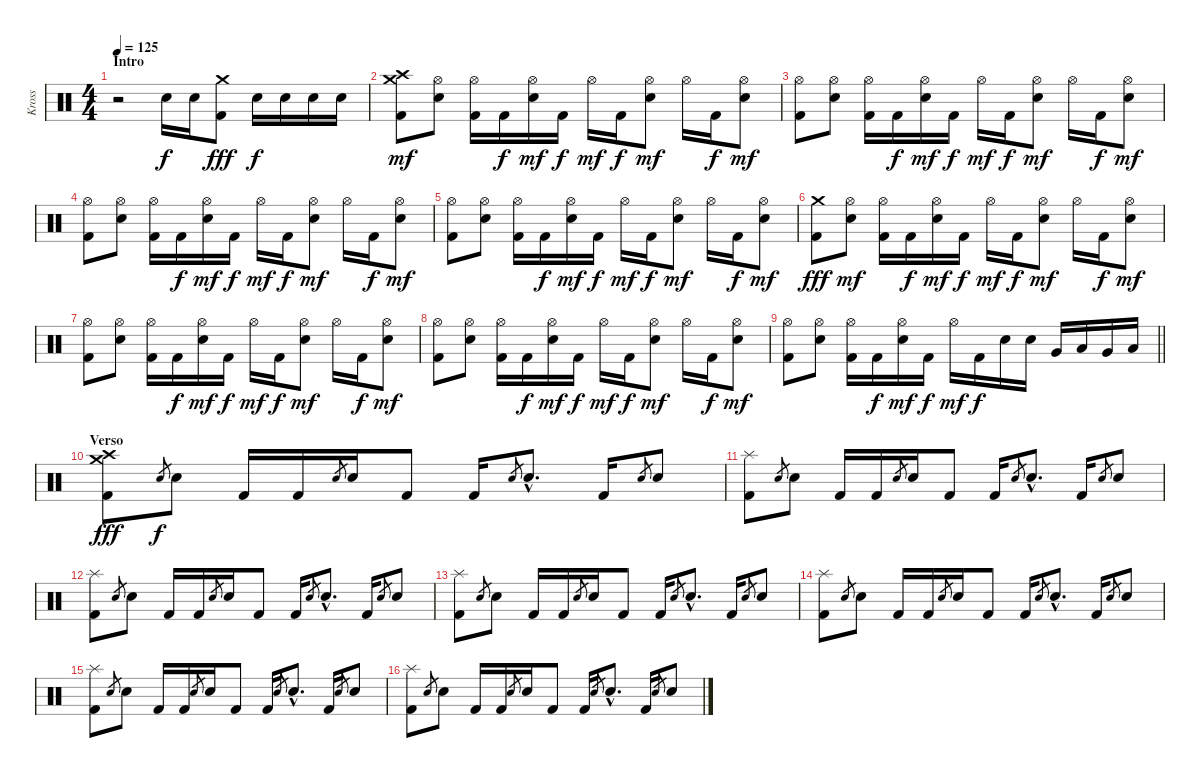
\track ("Kross" "Kross") {instrument percussion}
\staff {score}
\articulation defaults
\ts (4 4)
\section ("" "Intro")
\tempo 125
\clef neutral
\ks c
r.2{dy f} "Snare (hit) 2".16 "Snare (hit) 2".16 ("Crash medium (hit)" "Kick (hit) 2").8{dy fff} "Snare (hit) 2".16{dy f} "Snare (hit) 2".16 "Snare (hit) 2".16 "Snare (hit) 2".16 |
("Crash medium (hit)" "Crash high (hit)" "Kick (hit) 2").8{dy mf} ("Hi-Hat (open)" "Snare (hit) 2").8 ("Hi-Hat (open)" "Kick (hit) 2").16 "Kick (hit) 2".16{dy f} ("Hi-Hat (open)" "Snare (hit) 2").16{dy mf} "Kick (hit) 2".16{dy f} "Hi-Hat (open)".16{dy mf} "Kick (hit) 2".16{dy f} ("Hi-Hat (open)" "Snare (hit) 2").8{dy mf} "Hi-Hat (open)".16 "Kick (hit) 2".16{dy f} ("Hi-Hat (open)" "Snare (hit) 2").8{dy mf} |
("Hi-Hat (open)" "Kick (hit) 2").8 ("Hi-Hat (open)" "Snare (hit) 2").8 ("Hi-Hat (open)" "Kick (hit) 2").16 "Kick (hit) 2".16{dy f} ("Hi-Hat (open)" "Snare (hit) 2").16{dy mf} "Kick (hit) 2".16{dy f} "Hi-Hat (open)".16{dy mf} "Kick (hit) 2".16{dy f} ("Hi-Hat (open)" "Snare (hit) 2").8{dy mf} "Hi-Hat (open)".16 "Kick (hit) 2".16{dy f} ("Hi-Hat (open)" "Snare (hit) 2").8{dy mf} |
("Hi-Hat (open)" "Kick (hit) 2").8 ("Hi-Hat (open)" "Snare (hit) 2").8 ("Hi-Hat (open)" "Kick (hit) 2").16 "Kick (hit) 2".16{dy f} ("Hi-Hat (open)" "Snare (hit) 2").16{dy mf} "Kick (hit) 2".16{dy f} "Hi-Hat (open)".16{dy mf} "Kick (hit) 2".16{dy f} ("Hi-Hat (open)" "Snare (hit) 2").8{dy mf} "Hi-Hat (open)".16 "Kick (hit) 2".16{dy f} ("Hi-Hat (open)" "Snare (hit) 2").8{dy mf} |
("Hi-Hat (open)" "Kick (hit) 2").8 ("Hi-Hat (open)" "Snare (hit) 2").8 ("Hi-Hat (open)" "Kick (hit) 2").16 "Kick (hit) 2".16{dy f} ("Hi-Hat (open)" "Snare (hit) 2").16{dy mf} "Kick (hit) 2".16{dy f} "Hi-Hat (open)".16{dy mf} "Kick (hit) 2".16{dy f} ("Hi-Hat (open)" "Snare (hit) 2").8{dy mf} "Hi-Hat (open)".16 "Kick (hit) 2".16{dy f} ("Hi-Hat (open)" "Snare (hit) 2").8{dy mf} |
("Crash medium (hit)" "Kick (hit) 2").8{dy fff} ("Hi-Hat (open)" "Snare (hit) 2").8{dy mf} ("Hi-Hat (open)" "Kick (hit) 2").16 "Kick (hit) 2".16{dy f} ("Hi-Hat (open)" "Snare (hit) 2").16{dy mf} "Kick (hit) 2".16{dy f} "Hi-Hat (open)".16{dy mf} "Kick (hit) 2".16{dy f} ("Hi-Hat (open)" "Snare (hit) 2").8{dy mf} "Hi-Hat (open)".16 "Kick (hit) 2".16{dy f} ("Hi-Hat (open)" "Snare (hit) 2").8{dy mf} |
("Hi-Hat (open)" "Kick (hit) 2").8 ("Hi-Hat (open)" "Snare (hit) 2").8 ("Hi-Hat (open)" "Kick (hit) 2").16 "Kick (hit) 2".16{dy f} ("Hi-Hat (open)" "Snare (hit) 2").16{dy mf} "Kick (hit) 2".16{dy f} "Hi-Hat (open)".16{dy mf} "Kick (hit) 2".16{dy f} ("Hi-Hat (open)" "Snare (hit) 2").8{dy mf} "Hi-Hat (open)".16 "Kick (hit) 2".16{dy f} ("Hi-Hat (open)" "Snare (hit) 2").8{dy mf} |
("Hi-Hat (open)" "Kick (hit) 2").8 ("Hi-Hat (open)" "Snare (hit) 2").8 ("Hi-Hat (open)" "Kick (hit) 2").16 "Kick (hit) 2".16{dy f} ("Hi-Hat (open)" "Snare (hit) 2").16{dy mf} "Kick (hit) 2".16{dy f} "Hi-Hat (open)".16{dy mf} "Kick (hit) 2".16{dy f} ("Hi-Hat (open)" "Snare (hit) 2").8{dy mf} "Hi-Hat (open)".16 "Kick (hit) 2".16{dy f} ("Hi-Hat (open)" "Snare (hit) 2").8{dy mf} |
\barLineRight lightlight
("Hi-Hat (open)" "Kick (hit) 2").8 ("Hi-Hat (open)" "Snare (hit) 2").8 ("Hi-Hat (open)" "Kick (hit) 2").16 "Kick (hit) 2".16{dy f} ("Hi-Hat (open)" "Snare (hit) 2").16{dy mf} "Kick (hit) 2".16{dy f} "Hi-Hat (open)".16{dy mf} "Kick (hit) 2".16{dy f} "Snare (hit) 2".16 "Snare (hit) 2".16 "Very Low Tom (hit)".16 "Low Tom (hit)".16 "Very Low Tom (hit)".16 "Low Tom (hit)".16 |
\section ("" "Verso")
("Crash high (hit)" "Crash medium (hit)" "Kick (hit) 2").8{dy fff} "Snare (hit) 2".8{gr dy f} "Snare (hit) 2".8 "Kick (hit) 2".16 "Kick (hit) 2".16 "Snare (hit) 2".8{gr} "Snare (hit) 2".16 "Kick (hit) 2".8 "Kick (hit) 2".16 "Snare (hit) 2".8{gr} "Snare (hit) 2"{hac}.8{d} "Kick (hit) 2".16 "Snare (hit) 2".8{gr} "Snare (hit) 2".8 |
("Splash (hit)" "Kick (hit) 2").8 "Snare (hit) 2".8{gr} "Snare (hit) 2".8 "Kick (hit) 2".16 "Kick (hit) 2".16 "Snare (hit) 2".8{gr} "Snare (hit) 2".16 "Kick (hit) 2".8 "Kick (hit) 2".16 "Snare (hit) 2".8{gr} "Snare (hit) 2"{hac}.8{d} "Kick (hit) 2".16 "Snare (hit) 2".8{gr} "Snare (hit) 2".8 |
("Splash (hit)" "Kick (hit) 2").8 "Snare (hit) 2".8{gr} "Snare (hit) 2".8 "Kick (hit) 2".16 "Kick (hit) 2".16 "Snare (hit) 2".8{gr} "Snare (hit) 2".16 "Kick (hit) 2".8 "Kick (hit) 2".16 "Snare (hit) 2".8{gr} "Snare (hit) 2"{hac}.8{d} "Kick (hit) 2".16 "Snare (hit) 2".8{gr} "Snare (hit) 2".8 |
("Splash (hit)" "Kick (hit) 2").8 "Snare (hit) 2".8{gr} "Snare (hit) 2".8 "Kick (hit) 2".16 "Kick (hit) 2".16 "Snare (hit) 2".8{gr} "Snare (hit) 2".16 "Kick (hit) 2".8 "Kick (hit) 2".16 "Snare (hit) 2".8{gr} "Snare (hit) 2"{hac}.8{d} "Kick (hit) 2".16 "Snare (hit) 2".8{gr} "Snare (hit) 2".8 |
("Splash (hit)" "Kick (hit) 2").8 "Snare (hit) 2".8{gr} "Snare (hit) 2".8 "Kick (hit) 2".16 "Kick (hit) 2".16 "Snare (hit) 2".8{gr} "Snare (hit) 2".16 "Kick (hit) 2".8 "Kick (hit) 2".16 "Snare (hit) 2".8{gr} "Snare (hit) 2"{hac}.8{d} "Kick (hit) 2".16 "Snare (hit) 2".8{gr} "Snare (hit) 2".8 |
("Splash (hit)" "Kick (hit) 2").8 "Snare (hit) 2".8{gr} "Snare (hit) 2".8 "Kick (hit) 2".16 "Kick (hit) 2".16 "Snare (hit) 2".8{gr} "Snare (hit) 2".16 "Kick (hit) 2".8 "Kick (hit) 2".16 "Snare (hit) 2".8{gr} "Snare (hit) 2"{hac}.8{d} "Kick (hit) 2".16 "Snare (hit) 2".8{gr} "Snare (hit) 2".8 |
("Splash (hit)" "Kick (hit) 2").8 "Snare (hit) 2".8{gr} "Snare (hit) 2".8 "Kick (hit) 2".16 "Kick (hit) 2".16 "Snare (hit) 2".8{gr} "Snare (hit) 2".16 "Kick (hit) 2".8 "Kick (hit) 2".16 "Snare (hit) 2".8{gr} "Snare (hit) 2"{hac}.8{d} "Kick (hit) 2".16 "Snare (hit) 2".8{gr} "Snare (hit) 2".8
